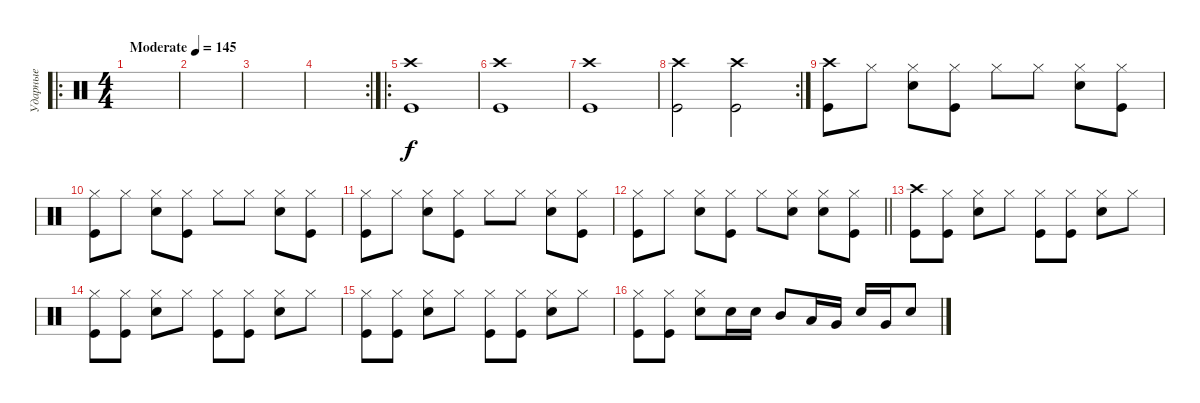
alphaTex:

\track ("Ударные" "Ударные") {instrument percussion}
\staff {score}
\articulation defaults
\ro
\ts (4 4)
\tempo (145 "Moderate")
\clef neutral
\ks c
|
|
|
\rc 2
|
\ro
("Kick (hit)" "Crash high (hit)").1 |
("Kick (hit)" "Crash high (hit)").1 |
("Kick (hit)" "Crash high (hit)").1 |
\rc 2
("Kick (hit)" "Crash high (hit)").2 ("Kick (hit)" "Crash high (hit)").2 |
("Crash high (hit)" "Kick (hit)").8 "Hi-Hat (closed)".8 ("Hi-Hat (closed)" "Snare (hit) 2").8 ("Hi-Hat (closed)" "Kick (hit)").8 "Hi-Hat (closed)".8 "Hi-Hat (closed)".8 ("Hi-Hat (closed)" "Snare (hit) 2").8 ("Hi-Hat (closed)" "Kick (hit)").8 |
("Hi-Hat (closed)" "Kick (hit)").8 "Hi-Hat (closed)".8 ("Hi-Hat (closed)" "Snare (hit) 2").8 ("Hi-Hat (closed)" "Kick (hit)").8 "Hi-Hat (closed)".8 "Hi-Hat (closed)".8 ("Hi-Hat (closed)" "Snare (hit) 2").8 ("Hi-Hat (closed)" "Kick (hit)").8 |
("Hi-Hat (closed)" "Kick (hit)").8 "Hi-Hat (closed)".8 ("Hi-Hat (closed)" "Snare (hit) 2").8 ("Hi-Hat (closed)" "Kick (hit)").8 "Hi-Hat (closed)".8 "Hi-Hat (closed)".8 ("Hi-Hat (closed)" "Snare (hit) 2").8 ("Hi-Hat (closed)" "Kick (hit)").8 |
\barLineRight lightlight
("Hi-Hat (closed)" "Kick (hit)").8 "Hi-Hat (closed)".8 ("Hi-Hat (closed)" "Snare (hit) 2").8 ("Hi-Hat (closed)" "Kick (hit)").8 "Hi-Hat (closed)".8 ("Hi-Hat (closed)" "Snare (hit) 2").8 ("Hi-Hat (closed)" "Snare (hit) 2").8 ("Hi-Hat (closed)" "Kick (hit)").8 |
("Crash high (hit)" "Kick (hit)").8 ("Hi-Hat (closed)" "Kick (hit)").8 ("Hi-Hat (closed)" "Snare (hit) 2").8 "Hi-Hat (closed)".8 ("Hi-Hat (closed)" "Kick (hit)").8 ("Hi-Hat (closed)" "Kick (hit)").8 ("Hi-Hat (closed)" "Snare (hit) 2").8 "Hi-Hat (closed)".8 |
("Hi-Hat (closed)" "Kick (hit)").8 ("Hi-Hat (closed)" "Kick (hit)").8 ("Hi-Hat (closed)" "Snare (hit) 2").8 "Hi-Hat (closed)".8 ("Hi-Hat (closed)" "Kick (hit)").8 ("Hi-Hat (closed)" "Kick (hit)").8 ("Hi-Hat (closed)" "Snare (hit) 2").8 "Hi-Hat (closed)".8 |
("Hi-Hat (closed)" "Kick (hit)").8 ("Hi-Hat (closed)" "Kick (hit)").8 ("Hi-Hat (closed)" "Snare (hit) 2").8 "Hi-Hat (closed)".8 ("Hi-Hat (closed)" "Kick (hit)").8 ("Hi-Hat (closed)" "Kick (hit)").8 ("Hi-Hat (closed)" "Snare (hit) 2").8 "Hi-Hat (closed)".8 |
("Hi-Hat (closed)" "Kick (hit)").8 ("Hi-Hat (closed)" "Kick (hit)").8 ("Hi-Hat (closed)" "Snare (hit) 2").8 "Snare (hit) 2".16 "Snare (hit) 2".16 "Mid Tom (hit)".8 "Low Tom (hit)".16 "Very Low Tom (hit)".16 "Snare (hit) 2".16 "Very Low Tom (hit)".16 "Snare (hit) 2".8
